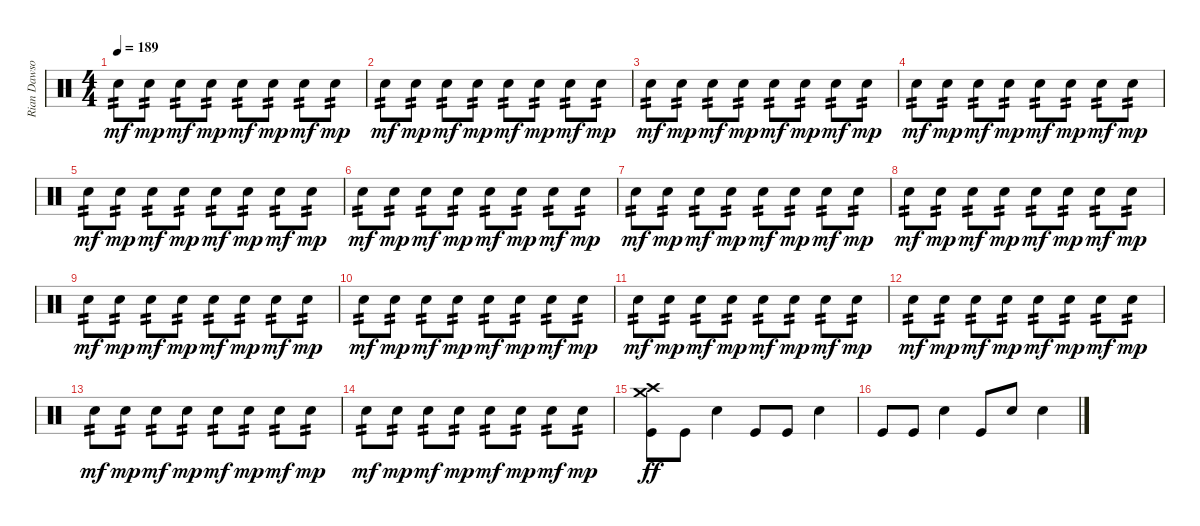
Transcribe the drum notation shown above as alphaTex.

\track ("Rian Dawson" "Rian Dawso") {instrument percussion}
\staff {score}
\articulation defaults
\ts (4 4)
\tempo 189
\clef neutral
\ks c "Snare (hit) 2".8{tp 2 dy mf} "Snare (hit) 2".8{tp 2 dy mp} "Snare (hit) 2".8{tp 2 dy mf} "Snare (hit) 2".8{tp 2 dy mp} "Snare (hit) 2".8{tp 2 dy mf} "Snare (hit) 2".8{tp 2 dy mp} "Snare (hit) 2".8{tp 2 dy mf} "Snare (hit) 2".8{tp 2 dy mp}
|
"Snare (hit) 2".8{tp 2 dy mf} "Snare (hit) 2".8{tp 2 dy mp} "Snare (hit) 2".8{tp 2 dy mf} "Snare (hit) 2".8{tp 2 dy mp} "Snare (hit) 2".8{tp 2 dy mf} "Snare (hit) 2".8{tp 2 dy mp} "Snare (hit) 2".8{tp 2 dy mf} "Snare (hit) 2".8{tp 2 dy mp} |
"Snare (hit) 2".8{tp 2 dy mf} "Snare (hit) 2".8{tp 2 dy mp} "Snare (hit) 2".8{tp 2 dy mf} "Snare (hit) 2".8{tp 2 dy mp} "Snare (hit) 2".8{tp 2 dy mf} "Snare (hit) 2".8{tp 2 dy mp} "Snare (hit) 2".8{tp 2 dy mf} "Snare (hit) 2".8{tp 2 dy mp} |
"Snare (hit) 2".8{tp 2 dy mf} "Snare (hit) 2".8{tp 2 dy mp} "Snare (hit) 2".8{tp 2 dy mf} "Snare (hit) 2".8{tp 2 dy mp} "Snare (hit) 2".8{tp 2 dy mf} "Snare (hit) 2".8{tp 2 dy mp} "Snare (hit) 2".8{tp 2 dy mf} "Snare (hit) 2".8{tp 2 dy mp} |
"Snare (hit) 2".8{tp 2 dy mf} "Snare (hit) 2".8{tp 2 dy mp} "Snare (hit) 2".8{tp 2 dy mf} "Snare (hit) 2".8{tp 2 dy mp} "Snare (hit) 2".8{tp 2 dy mf} "Snare (hit) 2".8{tp 2 dy mp} "Snare (hit) 2".8{tp 2 dy mf} "Snare (hit) 2".8{tp 2 dy mp} |
"Snare (hit) 2".8{tp 2 dy mf} "Snare (hit) 2".8{tp 2 dy mp} "Snare (hit) 2".8{tp 2 dy mf} "Snare (hit) 2".8{tp 2 dy mp} "Snare (hit) 2".8{tp 2 dy mf} "Snare (hit) 2".8{tp 2 dy mp} "Snare (hit) 2".8{tp 2 dy mf} "Snare (hit) 2".8{tp 2 dy mp} |
"Snare (hit) 2".8{tp 2 dy mf} "Snare (hit) 2".8{tp 2 dy mp} "Snare (hit) 2".8{tp 2 dy mf} "Snare (hit) 2".8{tp 2 dy mp} "Snare (hit) 2".8{tp 2 dy mf} "Snare (hit) 2".8{tp 2 dy mp} "Snare (hit) 2".8{tp 2 dy mf} "Snare (hit) 2".8{tp 2 dy mp} |
"Snare (hit) 2".8{tp 2 dy mf} "Snare (hit) 2".8{tp 2 dy mp} "Snare (hit) 2".8{tp 2 dy mf} "Snare (hit) 2".8{tp 2 dy mp} "Snare (hit) 2".8{tp 2 dy mf} "Snare (hit) 2".8{tp 2 dy mp} "Snare (hit) 2".8{tp 2 dy mf} "Snare (hit) 2".8{tp 2 dy mp} |
"Snare (hit) 2".8{tp 2 dy mf} "Snare (hit) 2".8{tp 2 dy mp} "Snare (hit) 2".8{tp 2 dy mf} "Snare (hit) 2".8{tp 2 dy mp} "Snare (hit) 2".8{tp 2 dy mf} "Snare (hit) 2".8{tp 2 dy mp} "Snare (hit) 2".8{tp 2 dy mf} "Snare (hit) 2".8{tp 2 dy mp} |
"Snare (hit) 2".8{tp 2 dy mf} "Snare (hit) 2".8{tp 2 dy mp} "Snare (hit) 2".8{tp 2 dy mf} "Snare (hit) 2".8{tp 2 dy mp} "Snare (hit) 2".8{tp 2 dy mf} "Snare (hit) 2".8{tp 2 dy mp} "Snare (hit) 2".8{tp 2 dy mf} "Snare (hit) 2".8{tp 2 dy mp} |
"Snare (hit) 2".8{tp 2 dy mf} "Snare (hit) 2".8{tp 2 dy mp} "Snare (hit) 2".8{tp 2 dy mf} "Snare (hit) 2".8{tp 2 dy mp} "Snare (hit) 2".8{tp 2 dy mf} "Snare (hit) 2".8{tp 2 dy mp} "Snare (hit) 2".8{tp 2 dy mf} "Snare (hit) 2".8{tp 2 dy mp} |
"Snare (hit) 2".8{tp 2 dy mf} "Snare (hit) 2".8{tp 2 dy mp} "Snare (hit) 2".8{tp 2 dy mf} "Snare (hit) 2".8{tp 2 dy mp} "Snare (hit) 2".8{tp 2 dy mf} "Snare (hit) 2".8{tp 2 dy mp} "Snare (hit) 2".8{tp 2 dy mf} "Snare (hit) 2".8{tp 2 dy mp} |
"Snare (hit) 2".8{tp 2 dy mf} "Snare (hit) 2".8{tp 2 dy mp} "Snare (hit) 2".8{tp 2 dy mf} "Snare (hit) 2".8{tp 2 dy mp} "Snare (hit) 2".8{tp 2 dy mf} "Snare (hit) 2".8{tp 2 dy mp} "Snare (hit) 2".8{tp 2 dy mf} "Snare (hit) 2".8{tp 2 dy mp} |
"Snare (hit) 2".8{tp 2 dy mf} "Snare (hit) 2".8{tp 2 dy mp} "Snare (hit) 2".8{tp 2 dy mf} "Snare (hit) 2".8{tp 2 dy mp} "Snare (hit) 2".8{tp 2 dy mf} "Snare (hit) 2".8{tp 2 dy mp} "Snare (hit) 2".8{tp 2 dy mf} "Snare (hit) 2".8{tp 2 dy mp} |
("Crash high (hit)" "Crash medium (hit)" "Kick (hit)").8{dy ff} "Kick (hit)".8 "Snare (hit) 2".4 "Kick (hit)".8 "Kick (hit)".8 "Snare (hit) 2".4 |
"Kick (hit)".8 "Kick (hit)".8 "Snare (hit) 2".4 "Kick (hit)".8 "Snare (hit) 2".8 "Snare (hit) 2".4
